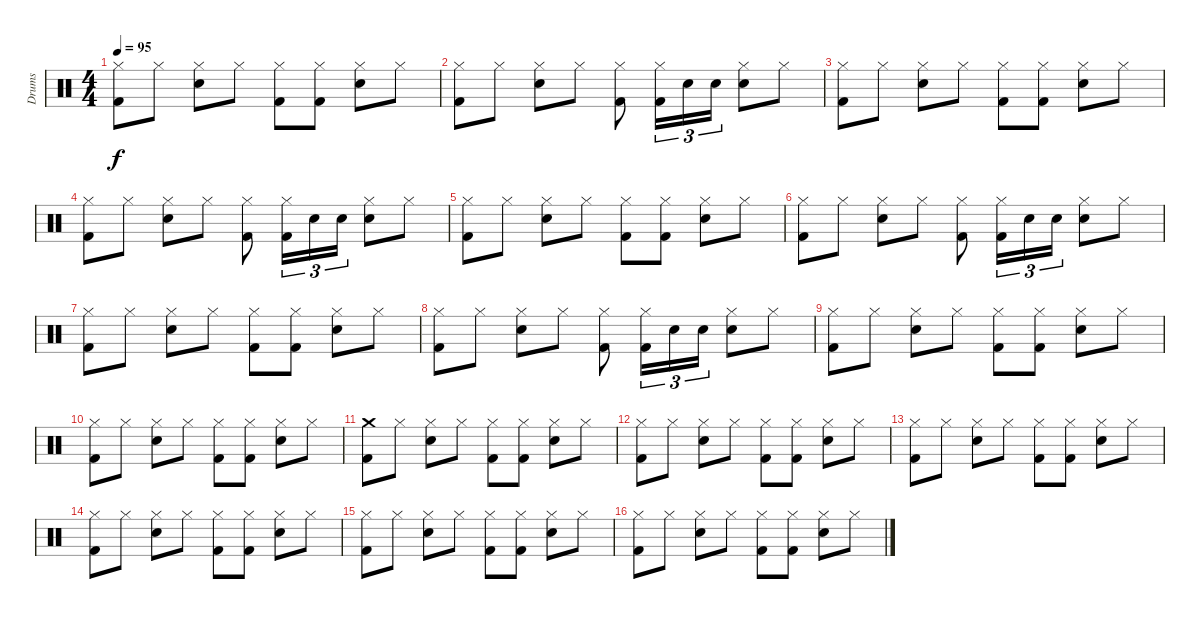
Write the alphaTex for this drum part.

\track ("Drums" "Drums") {instrument percussion}
\staff {score}
\articulation defaults
\ts (4 4)
\tempo 95
\clef neutral
\ks c
("Hi-Hat (closed)" "Kick (hit) 2").8{dy f} "Hi-Hat (closed)".8 ("Hi-Hat (closed)" "Snare (hit) 2").8 "Hi-Hat (closed)".8 ("Hi-Hat (closed)" "Kick (hit) 2").8 ("Hi-Hat (closed)" "Kick (hit) 2").8 ("Hi-Hat (closed)" "Snare (hit) 2").8 "Hi-Hat (closed)".8 |
("Hi-Hat (closed)" "Kick (hit) 2").8 "Hi-Hat (closed)".8 ("Hi-Hat (closed)" "Snare (hit) 2").8 "Hi-Hat (closed)".8 ("Hi-Hat (closed)" "Kick (hit) 2").8 ("Hi-Hat (closed)" "Kick (hit) 2").16{tu (3 2)} "Snare (hit) 2".16{tu (3 2)} "Snare (hit) 2".16{tu (3 2)} ("Hi-Hat (closed)" "Snare (hit) 2").8 "Hi-Hat (closed)".8 |
("Hi-Hat (closed)" "Kick (hit) 2").8 "Hi-Hat (closed)".8 ("Hi-Hat (closed)" "Snare (hit) 2").8 "Hi-Hat (closed)".8 ("Hi-Hat (closed)" "Kick (hit) 2").8 ("Hi-Hat (closed)" "Kick (hit) 2").8 ("Hi-Hat (closed)" "Snare (hit) 2").8 "Hi-Hat (closed)".8 |
("Hi-Hat (closed)" "Kick (hit) 2").8 "Hi-Hat (closed)".8 ("Hi-Hat (closed)" "Snare (hit) 2").8 "Hi-Hat (closed)".8 ("Hi-Hat (closed)" "Kick (hit) 2").8 ("Hi-Hat (closed)" "Kick (hit) 2").16{tu (3 2)} "Snare (hit) 2".16{tu (3 2)} "Snare (hit) 2".16{tu (3 2)} ("Hi-Hat (closed)" "Snare (hit) 2").8 "Hi-Hat (closed)".8 |
("Hi-Hat (closed)" "Kick (hit) 2").8 "Hi-Hat (closed)".8 ("Hi-Hat (closed)" "Snare (hit) 2").8 "Hi-Hat (closed)".8 ("Hi-Hat (closed)" "Kick (hit) 2").8 ("Hi-Hat (closed)" "Kick (hit) 2").8 ("Hi-Hat (closed)" "Snare (hit) 2").8 "Hi-Hat (closed)".8 |
("Hi-Hat (closed)" "Kick (hit) 2").8 "Hi-Hat (closed)".8 ("Hi-Hat (closed)" "Snare (hit) 2").8 "Hi-Hat (closed)".8 ("Hi-Hat (closed)" "Kick (hit) 2").8 ("Hi-Hat (closed)" "Kick (hit) 2").16{tu (3 2)} "Snare (hit) 2".16{tu (3 2)} "Snare (hit) 2".16{tu (3 2)} ("Hi-Hat (closed)" "Snare (hit) 2").8 "Hi-Hat (closed)".8 |
("Hi-Hat (closed)" "Kick (hit) 2").8 "Hi-Hat (closed)".8 ("Hi-Hat (closed)" "Snare (hit) 2").8 "Hi-Hat (closed)".8 ("Hi-Hat (closed)" "Kick (hit) 2").8 ("Hi-Hat (closed)" "Kick (hit) 2").8 ("Hi-Hat (closed)" "Snare (hit) 2").8 "Hi-Hat (closed)".8 |
("Hi-Hat (closed)" "Kick (hit) 2").8 "Hi-Hat (closed)".8 ("Hi-Hat (closed)" "Snare (hit) 2").8 "Hi-Hat (closed)".8 ("Hi-Hat (closed)" "Kick (hit) 2").8 ("Hi-Hat (closed)" "Kick (hit) 2").16{tu (3 2)} "Snare (hit) 2".16{tu (3 2)} "Snare (hit) 2".16{tu (3 2)} ("Hi-Hat (closed)" "Snare (hit) 2").8 "Hi-Hat (closed)".8 |
("Hi-Hat (closed)" "Kick (hit) 2").8 "Hi-Hat (closed)".8 ("Hi-Hat (closed)" "Snare (hit) 2").8 "Hi-Hat (closed)".8 ("Hi-Hat (closed)" "Kick (hit) 2").8 ("Hi-Hat (closed)" "Kick (hit) 2").8 ("Hi-Hat (closed)" "Snare (hit) 2").8 "Hi-Hat (closed)".8 |
("Hi-Hat (closed)" "Kick (hit) 2").8 "Hi-Hat (closed)".8 ("Hi-Hat (closed)" "Snare (hit) 2").8 "Hi-Hat (closed)".8 ("Hi-Hat (closed)" "Kick (hit) 2").8 ("Hi-Hat (closed)" "Kick (hit) 2").8 ("Hi-Hat (closed)" "Snare (hit) 2").8 "Hi-Hat (closed)".8 |
("Crash medium (hit)" "Kick (hit) 2").8 "Hi-Hat (closed)".8 ("Hi-Hat (closed)" "Snare (hit) 2").8 "Hi-Hat (closed)".8 ("Hi-Hat (closed)" "Kick (hit) 2").8 ("Hi-Hat (closed)" "Kick (hit) 2").8 ("Hi-Hat (closed)" "Snare (hit) 2").8 "Hi-Hat (closed)".8 |
("Hi-Hat (closed)" "Kick (hit) 2").8 "Hi-Hat (closed)".8 ("Hi-Hat (closed)" "Snare (hit) 2").8 "Hi-Hat (closed)".8 ("Hi-Hat (closed)" "Kick (hit) 2").8 ("Hi-Hat (closed)" "Kick (hit) 2").8 ("Hi-Hat (closed)" "Snare (hit) 2").8 "Hi-Hat (closed)".8 |
("Hi-Hat (closed)" "Kick (hit) 2").8 "Hi-Hat (closed)".8 ("Hi-Hat (closed)" "Snare (hit) 2").8 "Hi-Hat (closed)".8 ("Hi-Hat (closed)" "Kick (hit) 2").8 ("Hi-Hat (closed)" "Kick (hit) 2").8 ("Hi-Hat (closed)" "Snare (hit) 2").8 "Hi-Hat (closed)".8 |
("Hi-Hat (closed)" "Kick (hit) 2").8 "Hi-Hat (closed)".8 ("Hi-Hat (closed)" "Snare (hit) 2").8 "Hi-Hat (closed)".8 ("Hi-Hat (closed)" "Kick (hit) 2").8 ("Hi-Hat (closed)" "Kick (hit) 2").8 ("Hi-Hat (closed)" "Snare (hit) 2").8 "Hi-Hat (closed)".8 |
("Hi-Hat (closed)" "Kick (hit) 2").8 "Hi-Hat (closed)".8 ("Hi-Hat (closed)" "Snare (hit) 2").8 "Hi-Hat (closed)".8 ("Hi-Hat (closed)" "Kick (hit) 2").8 ("Hi-Hat (closed)" "Kick (hit) 2").8 ("Hi-Hat (closed)" "Snare (hit) 2").8 "Hi-Hat (closed)".8 |
("Hi-Hat (closed)" "Kick (hit) 2").8 "Hi-Hat (closed)".8 ("Hi-Hat (closed)" "Snare (hit) 2").8 "Hi-Hat (closed)".8 ("Hi-Hat (closed)" "Kick (hit) 2").8 ("Hi-Hat (closed)" "Kick (hit) 2").8 ("Hi-Hat (closed)" "Snare (hit) 2").8 "Hi-Hat (closed)".8
